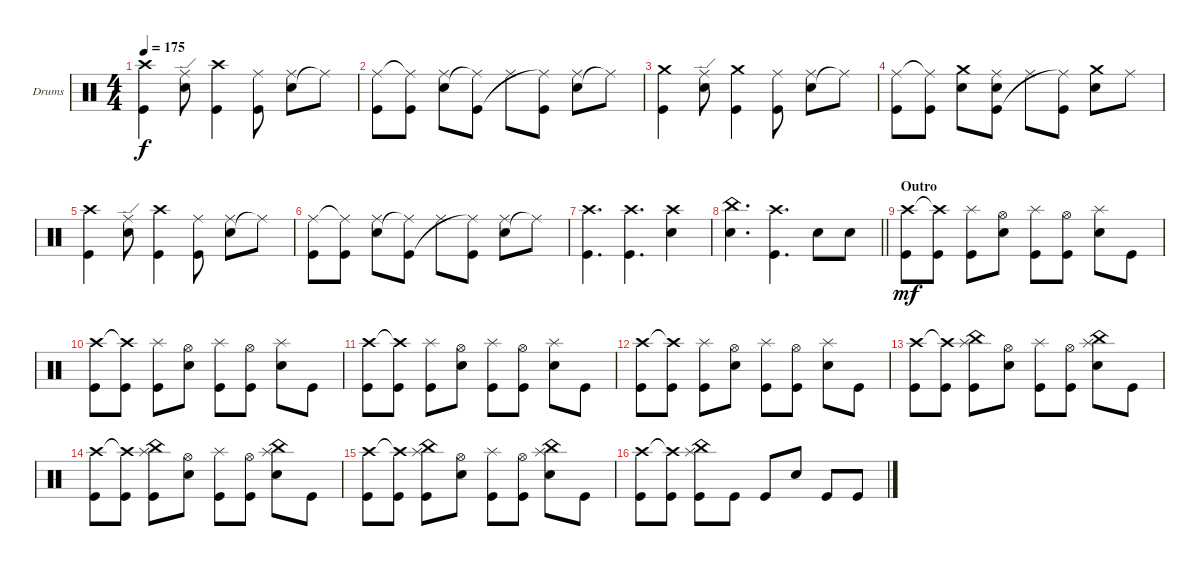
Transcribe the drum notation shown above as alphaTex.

\bracketExtendMode groupsimilarinstruments
\firstSystemTrackNameOrientation horizontal
\otherSystemsTrackNameOrientation horizontal
\track ("Drumkit" "Drums") {instrument percussion}
\staff {score}
\articulation defaults
\ts (4 4)
\tempo 175
\clef neutral
\ks c
("Crash high (hit)" "Kick (hit)").4{dy f} ("Ride (edge)" "Snare (hit) 2").8 ("Kick (hit)" "Crash high (hit)").4 ("Kick (hit)" "Ride (middle)").8 ("Snare (hit) 2" "Ride (middle)").8 "Ride (middle)"{t}.8 |
("Kick (hit)" "Ride (middle)").8 ("Kick (hit)" "Ride (middle)"{t}).8 ("Snare (hit) 2" "Ride (middle)").8 ("Ride (middle)"{t} "Kick (hit)").8 "Ride (middle)".8 ("Kick (hit)" "Ride (middle)"{t}).8 ("Snare (hit) 2" "Ride (middle)").8 "Ride (middle)"{t}.8 |
("Kick (hit)" "Crash medium (hit)").4 ("Ride (edge)" "Snare (hit) 2").8 ("Kick (hit)" "Crash medium (hit)").4 ("Kick (hit)" "Ride (middle)").8 ("Snare (hit) 2" "Ride (middle)").8 "Ride (middle)"{t}.8 |
("Kick (hit)" "Ride (middle)").8 ("Kick (hit)" "Ride (middle)"{t}).8 ("Snare (hit) 2" "Crash medium (hit)").8 ("Ride (middle)" "Kick (hit)" "Snare (hit) 2").8 "Ride (middle)".8 ("Kick (hit)" "Ride (middle)"{t}).8 ("Snare (hit) 2" "Crash medium (hit)").8 "Ride (middle)".8 |
("Crash high (hit)" "Kick (hit)").4 ("Ride (edge)" "Snare (hit) 2").8 ("Kick (hit)" "Crash high (hit)").4 ("Kick (hit)" "Ride (middle)").8 ("Snare (hit) 2" "Ride (middle)").8 "Ride (middle)"{t}.8 |
("Kick (hit)" "Ride (middle)").8 ("Kick (hit)" "Ride (middle)"{t}).8 ("Snare (hit) 2" "Ride (middle)").8 ("Ride (middle)"{t} "Kick (hit)").8 "Ride (middle)".8 ("Kick (hit)" "Ride (middle)"{t}).8 ("Snare (hit) 2" "Ride (middle)").8 "Ride (middle)"{t}.8 |
("Crash high (hit)" "Kick (hit)").4{d} ("Kick (hit)" "Crash high (hit)").4{d} ("Snare (hit) 2" "Crash high (hit)").4 |
\barLineRight lightlight
("China (hit)" "Snare (hit) 2").4{d} ("Crash high (hit)" "Kick (hit)").4{d} "Snare (hit) 2".8 "Snare (hit) 2".8 |
\section ("" "Outro")
("Kick (hit)" "Crash high (hit)").8{dy mf} ("Kick (hit)" "Crash high (hit)"{t}).8 ("Kick (hit)" "Splash (hit)").8 ("Snare (hit) 2" "Hi-Hat (open)").8 ("Kick (hit)" "Splash (hit)").8 ("Kick (hit)" "Hi-Hat (open)").8 ("Snare (hit) 2" "Splash (hit)").8 "Kick (hit)".8 |
("Kick (hit)" "Crash high (hit)").8 ("Kick (hit)" "Crash high (hit)"{t}).8 ("Kick (hit)" "Splash (hit)").8 ("Snare (hit) 2" "Hi-Hat (open)").8 ("Kick (hit)" "Splash (hit)").8 ("Kick (hit)" "Hi-Hat (open)").8 ("Snare (hit) 2" "Splash (hit)").8 "Kick (hit)".8 |
("Kick (hit)" "Crash high (hit)").8 ("Kick (hit)" "Crash high (hit)"{t}).8 ("Kick (hit)" "Splash (hit)").8 ("Snare (hit) 2" "Hi-Hat (open)").8 ("Kick (hit)" "Splash (hit)").8 ("Kick (hit)" "Hi-Hat (open)").8 ("Snare (hit) 2" "Splash (hit)").8 "Kick (hit)".8 |
("Kick (hit)" "Crash high (hit)").8 ("Kick (hit)" "Crash high (hit)"{t}).8 ("Kick (hit)" "Splash (hit)").8 ("Snare (hit) 2" "Hi-Hat (open)").8 ("Kick (hit)" "Splash (hit)").8 ("Kick (hit)" "Hi-Hat (open)").8 ("Snare (hit) 2" "Splash (hit)").8 "Kick (hit)".8 |
("Kick (hit)" "Crash high (hit)").8 ("Kick (hit)" "Crash high (hit)"{t}).8 ("Kick (hit)" "Splash (hit)" "China (hit)").8 ("Snare (hit) 2" "Hi-Hat (open)").8 ("Kick (hit)" "Splash (hit)").8 ("Kick (hit)" "Hi-Hat (open)").8 ("Snare (hit) 2" "Splash (hit)" "China (hit)").8 "Kick (hit)".8 |
("Kick (hit)" "Crash high (hit)").8 ("Kick (hit)" "Crash high (hit)"{t}).8 ("Kick (hit)" "Splash (hit)" "China (hit)").8 ("Snare (hit) 2" "Hi-Hat (open)").8 ("Kick (hit)" "Splash (hit)").8 ("Kick (hit)" "Hi-Hat (open)").8 ("Snare (hit) 2" "Splash (hit)" "China (hit)").8 "Kick (hit)".8 |
("Kick (hit)" "Crash high (hit)").8 ("Kick (hit)" "Crash high (hit)"{t}).8 ("Kick (hit)" "Splash (hit)" "China (hit)").8 ("Snare (hit) 2" "Hi-Hat (open)").8 ("Kick (hit)" "Splash (hit)").8 ("Kick (hit)" "Hi-Hat (open)").8 ("Snare (hit) 2" "Splash (hit)" "China (hit)").8 "Kick (hit)".8 |
("Kick (hit)" "Crash high (hit)").8 ("Kick (hit)" "Crash high (hit)"{t}).8 ("Kick (hit)" "Splash (hit)" "China (hit)").8 "Kick (hit)".8 "Kick (hit)".8 "Snare (hit) 2".8 "Kick (hit)".8 "Kick (hit)".8
